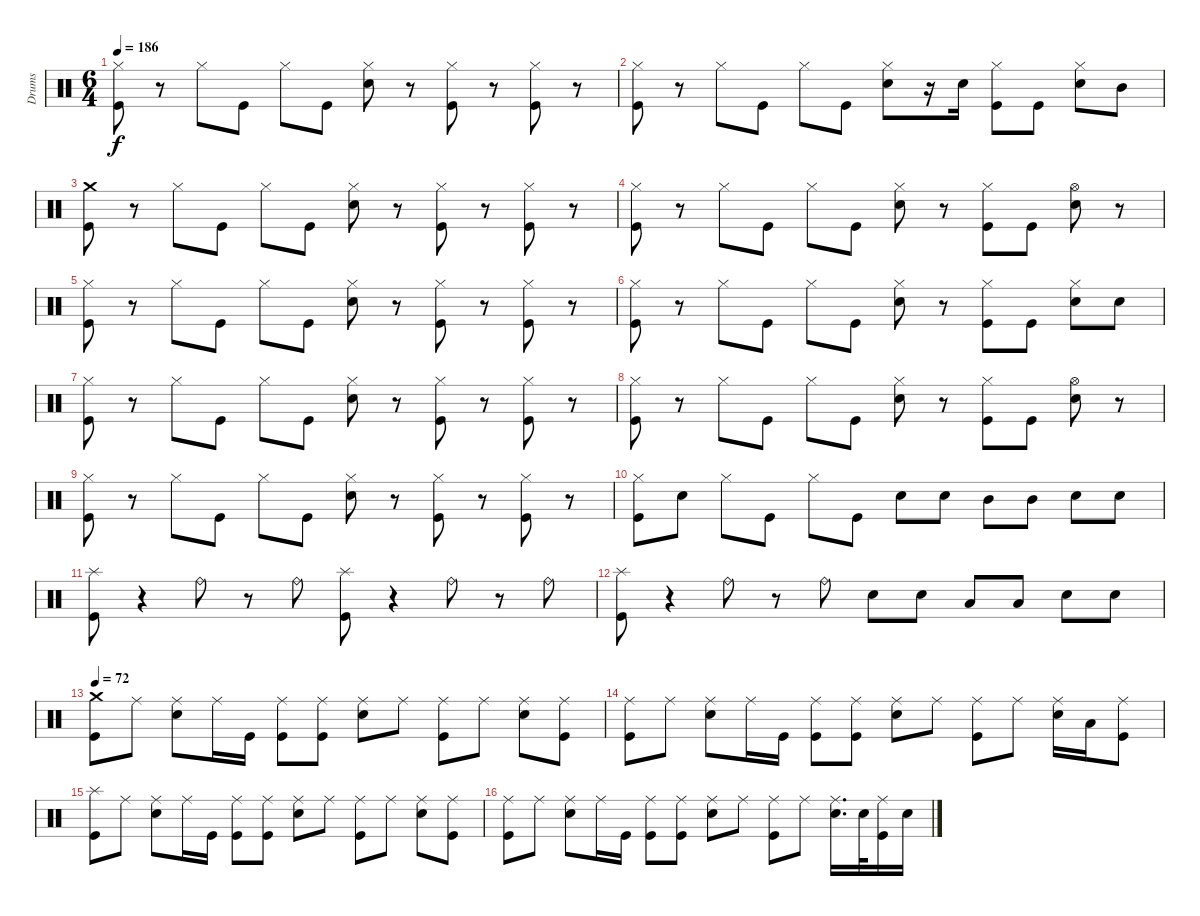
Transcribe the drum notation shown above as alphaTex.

\track ("Drums" "Drums") {instrument percussion}
\staff {score}
\articulation defaults
\ts (6 4)
\tempo 186
\clef neutral
\ks c
("Hi-Hat (closed)" "Kick (hit)").8{dy f} r.8 "Hi-Hat (closed)".8 "Kick (hit)".8 "Hi-Hat (closed)".8 "Kick (hit)".8 ("Hi-Hat (closed)" "Snare (hit) 2").8 r.8 ("Hi-Hat (closed)" "Kick (hit)").8 r.8 ("Hi-Hat (closed)" "Kick (hit)").8 r.8 |
("Hi-Hat (closed)" "Kick (hit)").8 r.8 "Hi-Hat (closed)".8 "Kick (hit)".8 "Hi-Hat (closed)".8 "Kick (hit)".8 ("Hi-Hat (closed)" "Snare (hit) 2").8 r.16 "Snare (hit) 2".16 ("Hi-Hat (closed)" "Kick (hit)").8 "Kick (hit)".8 ("Hi-Hat (closed)" "Snare (hit) 2").8 "Mid Tom (hit)".8 |
("Kick (hit)" "Crash medium (hit)").8 r.8 "Hi-Hat (closed)".8 "Kick (hit)".8 "Hi-Hat (closed)".8 "Kick (hit)".8 ("Hi-Hat (closed)" "Snare (hit) 2").8 r.8 ("Hi-Hat (closed)" "Kick (hit)").8 r.8 ("Hi-Hat (closed)" "Kick (hit)").8 r.8 |
("Hi-Hat (closed)" "Kick (hit)").8 r.8 "Hi-Hat (closed)".8 "Kick (hit)".8 "Hi-Hat (closed)".8 "Kick (hit)".8 ("Hi-Hat (closed)" "Snare (hit) 2").8 r.8 ("Hi-Hat (closed)" "Kick (hit)").8 "Kick (hit)".8 ("Hi-Hat (open)" "Snare (hit) 2").8 r.8 |
("Hi-Hat (closed)" "Kick (hit)").8 r.8 "Hi-Hat (closed)".8 "Kick (hit)".8 "Hi-Hat (closed)".8 "Kick (hit)".8 ("Hi-Hat (closed)" "Snare (hit) 2").8 r.8 ("Hi-Hat (closed)" "Kick (hit)").8 r.8 ("Hi-Hat (closed)" "Kick (hit)").8 r.8 |
("Hi-Hat (closed)" "Kick (hit)").8 r.8 "Hi-Hat (closed)".8 "Kick (hit)".8 "Hi-Hat (closed)".8 "Kick (hit)".8 ("Hi-Hat (closed)" "Snare (hit) 2").8 r.8 ("Hi-Hat (closed)" "Kick (hit)").8 "Kick (hit)".8 ("Hi-Hat (closed)" "Snare (hit) 2").8 "Snare (hit) 2".8 |
("Hi-Hat (closed)" "Kick (hit)").8 r.8 "Hi-Hat (closed)".8 "Kick (hit)".8 "Hi-Hat (closed)".8 "Kick (hit)".8 ("Hi-Hat (closed)" "Snare (hit) 2").8 r.8 ("Hi-Hat (closed)" "Kick (hit)").8 r.8 ("Hi-Hat (closed)" "Kick (hit)").8 r.8 |
("Hi-Hat (closed)" "Kick (hit)").8 r.8 "Hi-Hat (closed)".8 "Kick (hit)".8 "Hi-Hat (closed)".8 "Kick (hit)".8 ("Hi-Hat (closed)" "Snare (hit) 2").8 r.8 ("Hi-Hat (closed)" "Kick (hit)").8 "Kick (hit)".8 ("Hi-Hat (open)" "Snare (hit) 2").8 r.8 |
("Hi-Hat (closed)" "Kick (hit)").8 r.8 "Hi-Hat (closed)".8 "Kick (hit)".8 "Hi-Hat (closed)".8 "Kick (hit)".8 ("Hi-Hat (closed)" "Snare (hit) 2").8 r.8 ("Hi-Hat (closed)" "Kick (hit)").8 r.8 ("Hi-Hat (closed)" "Kick (hit)").8 r.8 |
("Hi-Hat (closed)" "Kick (hit)").8 "Snare (hit) 2".8 "Hi-Hat (closed)".8 "Kick (hit)".8 "Hi-Hat (closed)".8 "Kick (hit)".8 "Snare (hit) 2".8 "Snare (hit) 2".8 "Mid Tom (hit)".8 "Mid Tom (hit)".8 "Snare (hit) 2".8 "Snare (hit) 2".8 |
("Kick (hit)" "Splash (hit)").8 r.4 "Ride (bell)".8 r.8 "Ride (bell)".8 ("Kick (hit)" "Splash (hit)").8 r.4 "Ride (bell)".8 r.8 "Ride (bell)".8 |
("Kick (hit)" "Splash (hit)").8 r.4 "Ride (bell)".8 r.8 "Ride (bell)".8 "Snare (hit) 2".8 "Snare (hit) 2".8 "Low Tom (hit)".8 "Low Tom (hit)".8 "Snare (hit) 2".8 "Snare (hit) 2".8 |
\tempo 72
("Kick (hit)" "Crash medium (hit)").8 "Ride (middle)".8 ("Snare (hit) 2" "Ride (middle)").8 "Ride (middle)".16 "Kick (hit)".16 ("Ride (middle)" "Kick (hit)").8 ("Ride (middle)" "Kick (hit)").8 ("Snare (hit) 2" "Ride (middle)").8 "Ride (middle)".8 ("Ride (middle)" "Kick (hit)").8 "Ride (middle)".8 ("Ride (middle)" "Snare (hit) 2").8 ("Ride (middle)" "Kick (hit)").8 |
("Ride (middle)" "Kick (hit)").8 "Ride (middle)".8 ("Ride (middle)" "Snare (hit) 2").8 "Ride (middle)".16 "Kick (hit)".16 ("Ride (middle)" "Kick (hit)").8 ("Kick (hit)" "Ride (middle)").8 ("Ride (middle)" "Snare (hit) 2").8 "Ride (middle)".8 ("Ride (middle)" "Kick (hit)").8 "Ride (middle)".8 ("Ride (middle)" "Snare (hit) 2").16 "Low Tom (hit)".16 ("Ride (middle)" "Kick (hit)").8 |
("Kick (hit)" "Splash (hit)").8 "Ride (middle)".8 ("Ride (middle)" "Snare (hit) 2").8 "Ride (middle)".16 "Kick (hit)".16 ("Ride (middle)" "Kick (hit)").8 ("Ride (middle)" "Kick (hit)").8 ("Ride (middle)" "Snare (hit) 2").8 "Ride (middle)".8 ("Ride (middle)" "Kick (hit)").8 "Ride (middle)".8 ("Ride (middle)" "Snare (hit) 2").8 ("Ride (middle)" "Kick (hit)").8 |
("Ride (middle)" "Kick (hit)").8 "Ride (middle)".8 ("Ride (middle)" "Snare (hit) 2").8 "Ride (middle)".16 "Kick (hit)".16 ("Ride (middle)" "Kick (hit)").8 ("Kick (hit)" "Ride (middle)").8 ("Ride (middle)" "Snare (hit) 2").8 "Ride (middle)".8 ("Ride (middle)" "Kick (hit)").8 "Ride (middle)".8 ("Ride (middle)" "Snare (hit) 2").16{d} "Snare (hit) 2".32 ("Ride (middle)" "Kick (hit)").16 "Snare (hit) 2".16
